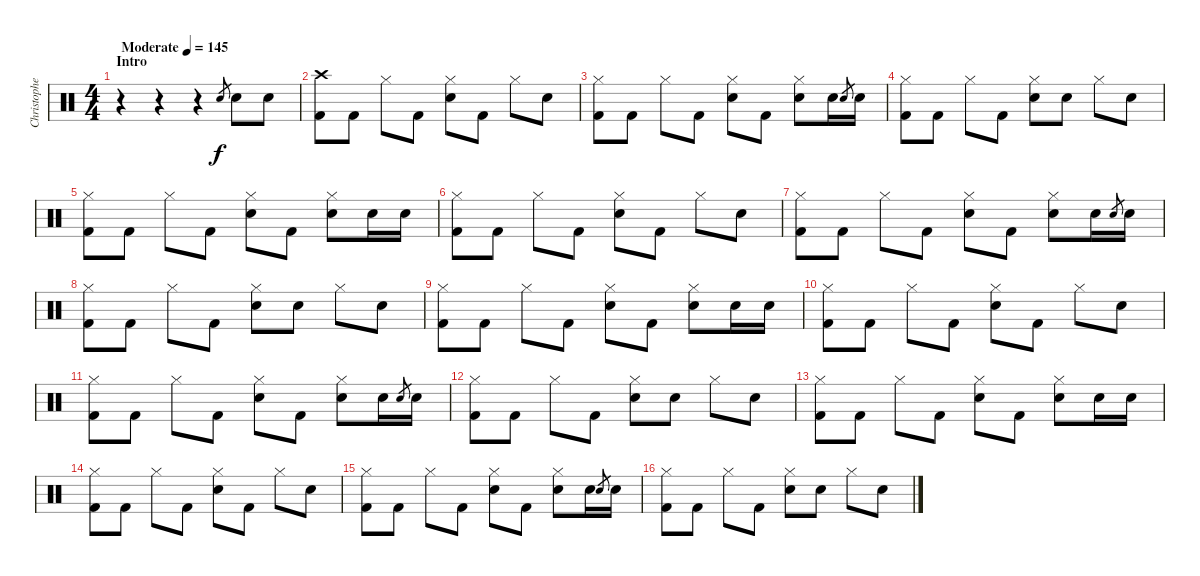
\track ("Christopher - Drums" "Christophe") {instrument percussion}
\staff {score}
\articulation defaults
\ts (4 4)
\section ("" "Intro")
\tempo (145 "Moderate")
\clef neutral
\ks c
r.4{dy f} r.4 r.4 "Electric Snare (hit)".8{gr} "Electric Snare (hit)".8 "Electric Snare (hit)".8 |
("Crash high (hit)" "Kick (hit) 2").8 "Kick (hit) 2".8 "Hi-Hat (closed)".8 "Kick (hit) 2".8 ("Hi-Hat (closed)" "Electric Snare (hit)").8 "Kick (hit) 2".8 "Hi-Hat (closed)".8 "Electric Snare (hit)".8 |
("Hi-Hat (closed)" "Kick (hit) 2").8 "Kick (hit) 2".8 "Hi-Hat (closed)".8 "Kick (hit) 2".8 ("Hi-Hat (closed)" "Electric Snare (hit)").8 "Kick (hit) 2".8 ("Hi-Hat (closed)" "Electric Snare (hit)").8 "Electric Snare (hit)".16 "Electric Snare (hit)".8{gr} "Electric Snare (hit)".16 |
("Hi-Hat (closed)" "Kick (hit) 2").8 "Kick (hit) 2".8 "Hi-Hat (closed)".8 "Kick (hit) 2".8 ("Hi-Hat (closed)" "Electric Snare (hit)").8 "Electric Snare (hit)".8 "Hi-Hat (closed)".8 "Electric Snare (hit)".8 |
("Hi-Hat (closed)" "Kick (hit) 2").8 "Kick (hit) 2".8 "Hi-Hat (closed)".8 "Kick (hit) 2".8 ("Hi-Hat (closed)" "Electric Snare (hit)").8 "Kick (hit) 2".8 ("Hi-Hat (closed)" "Electric Snare (hit)").8 "Electric Snare (hit)".16 "Electric Snare (hit)".16 |
("Hi-Hat (closed)" "Kick (hit) 2").8 "Kick (hit) 2".8 "Hi-Hat (closed)".8 "Kick (hit) 2".8 ("Hi-Hat (closed)" "Electric Snare (hit)").8 "Kick (hit) 2".8 "Hi-Hat (closed)".8 "Electric Snare (hit)".8 |
("Hi-Hat (closed)" "Kick (hit) 2").8 "Kick (hit) 2".8 "Hi-Hat (closed)".8 "Kick (hit) 2".8 ("Hi-Hat (closed)" "Electric Snare (hit)").8 "Kick (hit) 2".8 ("Hi-Hat (closed)" "Electric Snare (hit)").8 "Electric Snare (hit)".16 "Electric Snare (hit)".8{gr} "Electric Snare (hit)".16 |
("Hi-Hat (closed)" "Kick (hit) 2").8 "Kick (hit) 2".8 "Hi-Hat (closed)".8 "Kick (hit) 2".8 ("Hi-Hat (closed)" "Electric Snare (hit)").8 "Electric Snare (hit)".8 "Hi-Hat (closed)".8 "Electric Snare (hit)".8 |
("Hi-Hat (closed)" "Kick (hit) 2").8 "Kick (hit) 2".8 "Hi-Hat (closed)".8 "Kick (hit) 2".8 ("Hi-Hat (closed)" "Electric Snare (hit)").8 "Kick (hit) 2".8 ("Hi-Hat (closed)" "Electric Snare (hit)").8 "Electric Snare (hit)".16 "Electric Snare (hit)".16 |
("Hi-Hat (closed)" "Kick (hit) 2").8 "Kick (hit) 2".8 "Hi-Hat (closed)".8 "Kick (hit) 2".8 ("Hi-Hat (closed)" "Electric Snare (hit)").8 "Kick (hit) 2".8 "Hi-Hat (closed)".8 "Electric Snare (hit)".8 |
("Hi-Hat (closed)" "Kick (hit) 2").8 "Kick (hit) 2".8 "Hi-Hat (closed)".8 "Kick (hit) 2".8 ("Hi-Hat (closed)" "Electric Snare (hit)").8 "Kick (hit) 2".8 ("Hi-Hat (closed)" "Electric Snare (hit)").8 "Electric Snare (hit)".16 "Electric Snare (hit)".8{gr} "Electric Snare (hit)".16 |
("Hi-Hat (closed)" "Kick (hit) 2").8 "Kick (hit) 2".8 "Hi-Hat (closed)".8 "Kick (hit) 2".8 ("Hi-Hat (closed)" "Electric Snare (hit)").8 "Electric Snare (hit)".8 "Hi-Hat (closed)".8 "Electric Snare (hit)".8 |
("Hi-Hat (closed)" "Kick (hit) 2").8 "Kick (hit) 2".8 "Hi-Hat (closed)".8 "Kick (hit) 2".8 ("Hi-Hat (closed)" "Electric Snare (hit)").8 "Kick (hit) 2".8 ("Hi-Hat (closed)" "Electric Snare (hit)").8 "Electric Snare (hit)".16 "Electric Snare (hit)".16 |
("Hi-Hat (closed)" "Kick (hit) 2").8 "Kick (hit) 2".8 "Hi-Hat (closed)".8 "Kick (hit) 2".8 ("Hi-Hat (closed)" "Electric Snare (hit)").8 "Kick (hit) 2".8 "Hi-Hat (closed)".8 "Electric Snare (hit)".8 |
("Hi-Hat (closed)" "Kick (hit) 2").8 "Kick (hit) 2".8 "Hi-Hat (closed)".8 "Kick (hit) 2".8 ("Hi-Hat (closed)" "Electric Snare (hit)").8 "Kick (hit) 2".8 ("Hi-Hat (closed)" "Electric Snare (hit)").8 "Electric Snare (hit)".16 "Electric Snare (hit)".8{gr} "Electric Snare (hit)".16 |
("Hi-Hat (closed)" "Kick (hit) 2").8 "Kick (hit) 2".8 "Hi-Hat (closed)".8 "Kick (hit) 2".8 ("Hi-Hat (closed)" "Electric Snare (hit)").8 "Electric Snare (hit)".8 "Hi-Hat (closed)".8 "Electric Snare (hit)".8
